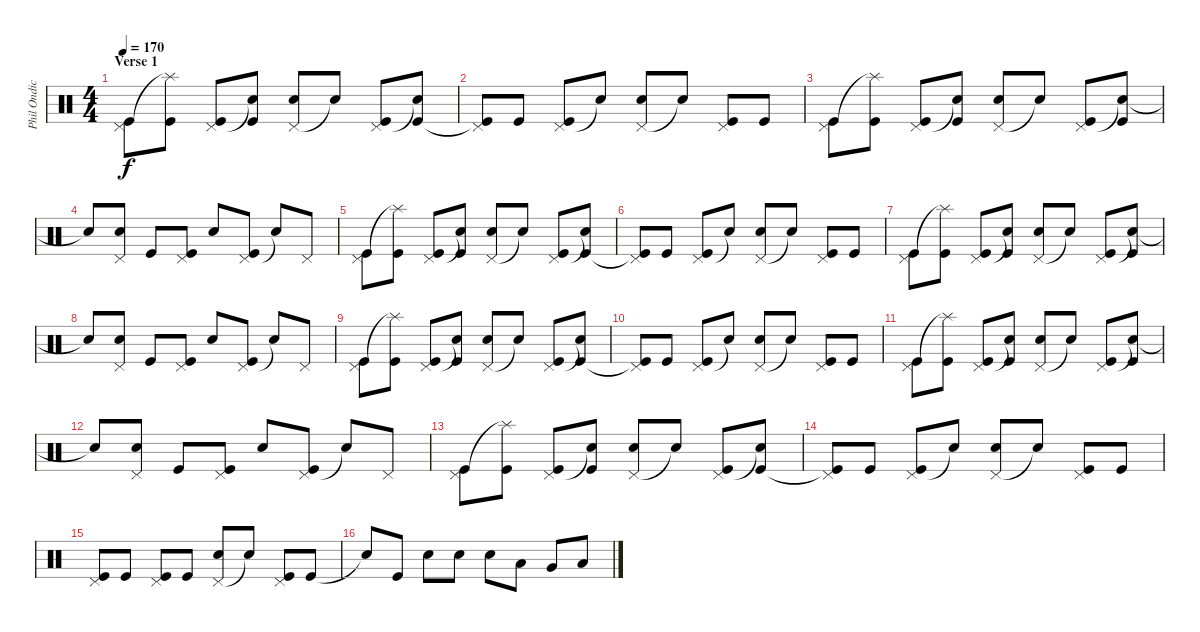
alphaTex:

\track ("Phil Ondich (Drums)" "Phil Ondic") {instrument percussion}
\staff {score}
\articulation defaults
\ts (4 4)
\section ("" "Verse 1")
\tempo 170
\clef neutral
\ks c
("Pedal Hi-Hat (hit)" "Kick (hit)").8{dy f} ("Splash (hit)"{t} "Kick (hit)").8 ("Pedal Hi-Hat (hit)" "Kick (hit)").8 ("Snare (hit)"{t} "Kick (hit)").8 ("Pedal Hi-Hat (hit)" "Electric Snare (hit)").8 "Snare (hit)"{t}.8 ("Pedal Hi-Hat (hit)" "Kick (hit)").8 ("Snare (hit)"{t} "Kick (hit)").8 |
("Pedal Hi-Hat (hit)" "Kick (hit)"{t}).8 "Kick (hit)".8 ("Pedal Hi-Hat (hit)" "Kick (hit)").8 "Snare (hit)"{t}.8 ("Pedal Hi-Hat (hit)" "Electric Snare (hit)").8 "Snare (hit)"{t}.8 ("Pedal Hi-Hat (hit)" "Kick (hit)").8 "Kick (hit)".8 |
("Pedal Hi-Hat (hit)" "Kick (hit)").8 ("Splash (hit)"{t} "Kick (hit)").8 ("Pedal Hi-Hat (hit)" "Kick (hit)").8 ("Snare (hit)"{t} "Kick (hit)").8 ("Pedal Hi-Hat (hit)" "Electric Snare (hit)").8 "Snare (hit)"{t}.8 ("Pedal Hi-Hat (hit)" "Kick (hit)").8 ("Snare (hit)"{t} "Kick (hit)").8 |
"Snare (hit)"{t}.8 ("Pedal Hi-Hat (hit)" "Electric Snare (hit)").8 "Kick (hit)".8 ("Pedal Hi-Hat (hit)" "Kick (hit)").8 "Electric Snare (hit)".8 ("Pedal Hi-Hat (hit)" "Kick (hit)").8 "Snare (hit)"{t}.8 "Pedal Hi-Hat (hit)".8 |
("Pedal Hi-Hat (hit)" "Kick (hit)").8 ("Splash (hit)"{t} "Kick (hit)").8 ("Pedal Hi-Hat (hit)" "Kick (hit)").8 ("Snare (hit)"{t} "Kick (hit)").8 ("Pedal Hi-Hat (hit)" "Electric Snare (hit)").8 "Snare (hit)"{t}.8 ("Pedal Hi-Hat (hit)" "Kick (hit)").8 ("Snare (hit)"{t} "Kick (hit)").8 |
("Pedal Hi-Hat (hit)" "Kick (hit)"{t}).8 "Kick (hit)".8 ("Pedal Hi-Hat (hit)" "Kick (hit)").8 "Snare (hit)"{t}.8 ("Pedal Hi-Hat (hit)" "Electric Snare (hit)").8 "Snare (hit)"{t}.8 ("Pedal Hi-Hat (hit)" "Kick (hit)").8 "Kick (hit)".8 |
("Pedal Hi-Hat (hit)" "Kick (hit)").8 ("Splash (hit)"{t} "Kick (hit)").8 ("Pedal Hi-Hat (hit)" "Kick (hit)").8 ("Snare (hit)"{t} "Kick (hit)").8 ("Pedal Hi-Hat (hit)" "Electric Snare (hit)").8 "Snare (hit)"{t}.8 ("Pedal Hi-Hat (hit)" "Kick (hit)").8 ("Snare (hit)"{t} "Kick (hit)").8 |
"Snare (hit)"{t}.8 ("Pedal Hi-Hat (hit)" "Electric Snare (hit)").8 "Kick (hit)".8 ("Pedal Hi-Hat (hit)" "Kick (hit)").8 "Electric Snare (hit)".8 ("Pedal Hi-Hat (hit)" "Kick (hit)").8 "Snare (hit)"{t}.8 "Pedal Hi-Hat (hit)".8 |
("Pedal Hi-Hat (hit)" "Kick (hit)").8 ("Splash (hit)"{t} "Kick (hit)").8 ("Pedal Hi-Hat (hit)" "Kick (hit)").8 ("Snare (hit)"{t} "Kick (hit)").8 ("Pedal Hi-Hat (hit)" "Electric Snare (hit)").8 "Snare (hit)"{t}.8 ("Pedal Hi-Hat (hit)" "Kick (hit)").8 ("Snare (hit)"{t} "Kick (hit)").8 |
("Pedal Hi-Hat (hit)" "Kick (hit)"{t}).8 "Kick (hit)".8 ("Pedal Hi-Hat (hit)" "Kick (hit)").8 "Snare (hit)"{t}.8 ("Pedal Hi-Hat (hit)" "Electric Snare (hit)").8 "Snare (hit)"{t}.8 ("Pedal Hi-Hat (hit)" "Kick (hit)").8 "Kick (hit)".8 |
("Pedal Hi-Hat (hit)" "Kick (hit)").8 ("Splash (hit)"{t} "Kick (hit)").8 ("Pedal Hi-Hat (hit)" "Kick (hit)").8 ("Snare (hit)"{t} "Kick (hit)").8 ("Pedal Hi-Hat (hit)" "Electric Snare (hit)").8 "Snare (hit)"{t}.8 ("Pedal Hi-Hat (hit)" "Kick (hit)").8 ("Snare (hit)"{t} "Kick (hit)").8 |
"Snare (hit)"{t}.8 ("Pedal Hi-Hat (hit)" "Electric Snare (hit)").8 "Kick (hit)".8 ("Pedal Hi-Hat (hit)" "Kick (hit)").8 "Electric Snare (hit)".8 ("Pedal Hi-Hat (hit)" "Kick (hit)").8 "Snare (hit)"{t}.8 "Pedal Hi-Hat (hit)".8 |
("Pedal Hi-Hat (hit)" "Kick (hit)").8 ("Splash (hit)"{t} "Kick (hit)").8 ("Pedal Hi-Hat (hit)" "Kick (hit)").8 ("Snare (hit)"{t} "Kick (hit)").8 ("Pedal Hi-Hat (hit)" "Electric Snare (hit)").8 "Snare (hit)"{t}.8 ("Pedal Hi-Hat (hit)" "Kick (hit)").8 ("Snare (hit)"{t} "Kick (hit)").8 |
("Pedal Hi-Hat (hit)" "Kick (hit)"{t}).8 "Kick (hit)".8 ("Pedal Hi-Hat (hit)" "Kick (hit)").8 "Snare (hit)"{t}.8 ("Pedal Hi-Hat (hit)" "Electric Snare (hit)").8 "Snare (hit)"{t}.8 ("Pedal Hi-Hat (hit)" "Kick (hit)").8 "Kick (hit)".8 |
("Pedal Hi-Hat (hit)" "Kick (hit)").8 "Kick (hit)".8 ("Pedal Hi-Hat (hit)" "Kick (hit)").8 "Kick (hit)".8 ("Pedal Hi-Hat (hit)" "Electric Snare (hit)").8 "Snare (hit)"{t}.8 ("Pedal Hi-Hat (hit)" "Kick (hit)").8 "Kick (hit)".8 |
"Snare (hit)"{t}.8 "Kick (hit)".8 "Electric Snare (hit)".8 "Electric Snare (hit)".8 "Electric Snare (hit)".8 "Low Tom (hit)".8 "Very Low Tom (hit)".8 "Low Floor Tom (hit)".8
